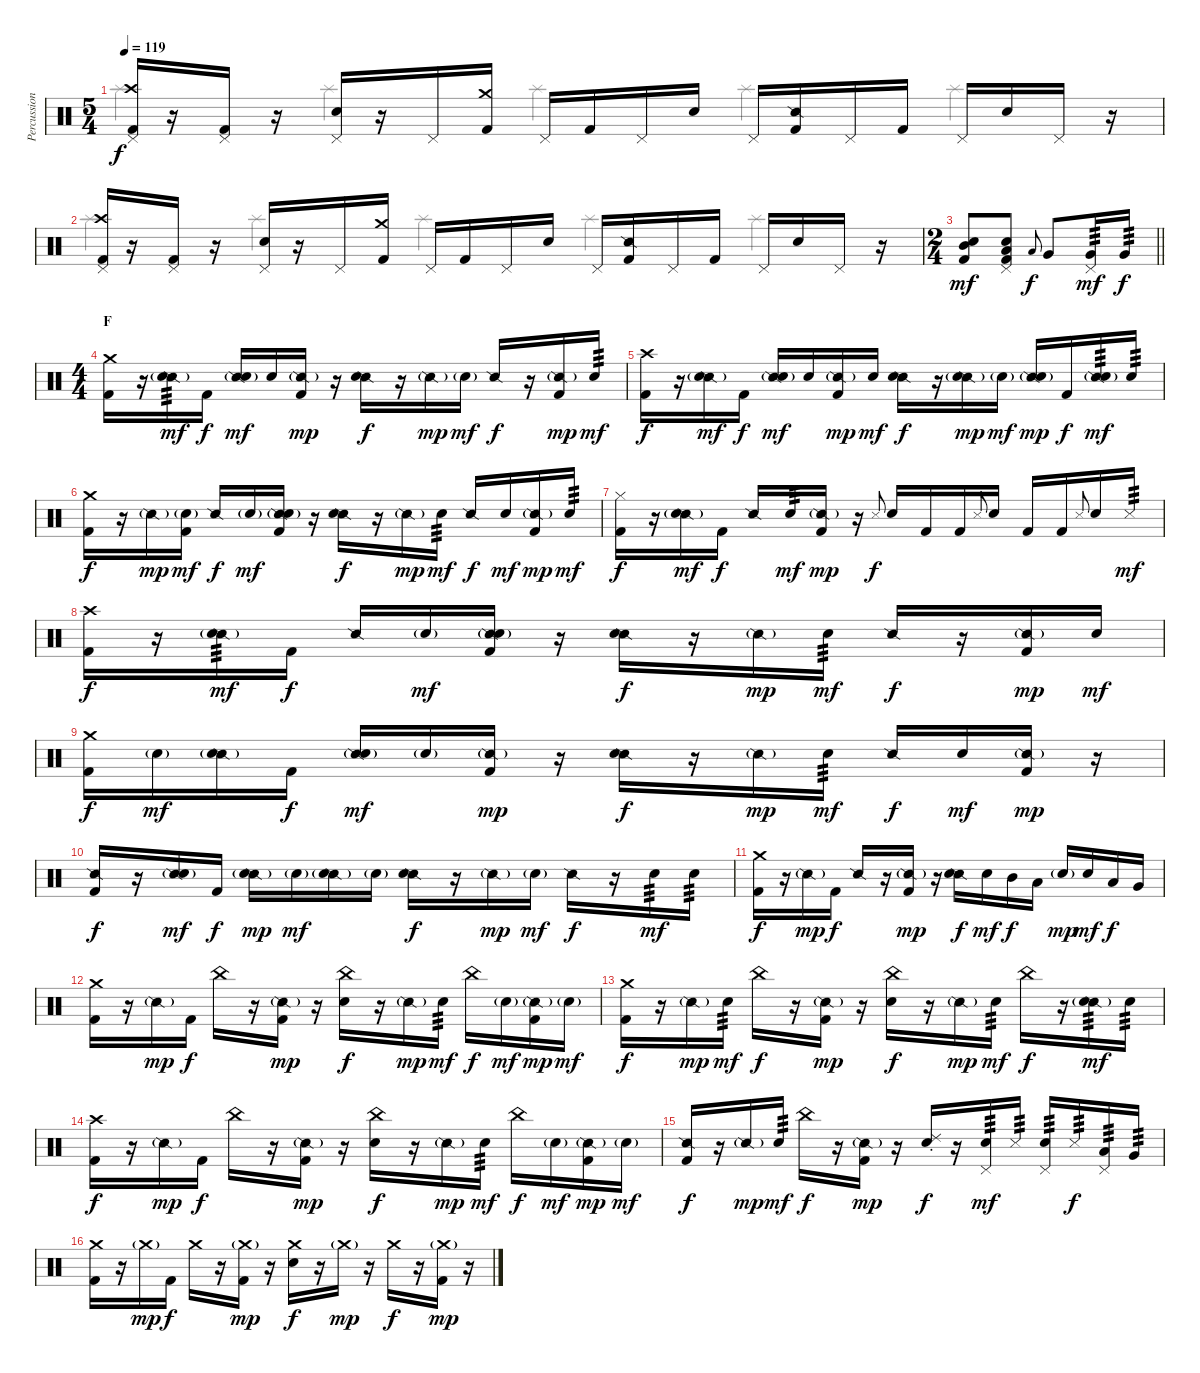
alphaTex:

\track ("Percussion" "Percussion") {instrument percussion}
\staff {score}
\articulation defaults
\voice
\ts (5 4)
\tempo 119
\clef neutral
\ks c
("Crash high (hit)" "Pedal Hi-Hat (hit)" "Kick (hit) 2").16{dy f} r.16 ("Pedal Hi-Hat (hit)" "Kick (hit) 2").16 r.16 ("Pedal Hi-Hat (hit)" "Snare (hit) 2").16 r.16 "Pedal Hi-Hat (hit)".16 ("Crash medium (hit)" "Kick (hit) 2").16 "Pedal Hi-Hat (hit)".16 "Kick (hit) 2".16 "Pedal Hi-Hat (hit)".16 "Snare (hit) 2".16 "Pedal Hi-Hat (hit)".16 ("Snare (side stick) 2" "Kick (hit) 2").16 "Pedal Hi-Hat (hit)".16 "Kick (hit) 2".16 "Pedal Hi-Hat (hit)".16 "Snare (hit) 2".16 "Pedal Hi-Hat (hit)".16 r.16 |
("Crash high (hit)" "Pedal Hi-Hat (hit)" "Kick (hit) 2").16 r.16 ("Pedal Hi-Hat (hit)" "Kick (hit) 2").16 r.16 ("Pedal Hi-Hat (hit)" "Snare (hit) 2").16 r.16 "Pedal Hi-Hat (hit)".16 ("Crash medium (hit)" "Kick (hit) 2").16 "Pedal Hi-Hat (hit)".16 "Kick (hit) 2".16 "Pedal Hi-Hat (hit)".16 "Snare (hit) 2".16 "Pedal Hi-Hat (hit)".16 ("Snare (side stick) 2" "Kick (hit) 2").16 "Pedal Hi-Hat (hit)".16 "Kick (hit) 2".16 "Pedal Hi-Hat (hit)".16 "Snare (hit) 2".16 "Pedal Hi-Hat (hit)".16 r.16 |
\ts (2 4)
\barLineRight lightlight
("Mid Tom (hit)" "Snare (hit) 2" "Kick (hit) 2").8{dy mf} ("Pedal Hi-Hat (hit)" "Snare (hit) 2" "Low Floor Tom (hit)" "Kick (hit) 2").8 "Low Tom (hit)".8{gr onbeat dy f} "Very Low Tom (hit)".8 ("Pedal Hi-Hat (hit)" "Very Low Tom (hit)").16{tp 3 dy mf} "Very Low Tom (hit)".16{tp 3 dy f} |
\ts (4 4)
\section ("" "F")
("Crash medium (hit)" "Kick (hit) 2").16 r.16 ("Snare (side stick) 2"{g} "Snare (hit) 2").16{tp 3 dy mf} "Kick (hit) 2".16{dy f} ("Snare (side stick) 2" "Snare (hit) 2"{g}).16{dy mf} "Snare (hit) 2".16 ("Snare (side stick) 2"{g} "Kick (hit) 2").16{dy mp} r.16 ("Snare (side stick) 2" "Snare (hit) 2").16{dy f} r.16 "Snare (side stick) 2"{g}.16{dy mp} "Snare (hit) 2"{g}.16{dy mf} "Snare (side stick) 2".16{dy f} r.16 ("Snare (side stick) 2"{g} "Kick (hit) 2").16{dy mp} "Snare (hit) 2".16{tp 3 dy mf} |
("Crash high (hit)" "Kick (hit) 2").16{dy f} r.16 ("Snare (side stick) 2"{g} "Snare (hit) 2"{g}).16{dy mf} "Kick (hit) 2".16{dy f} ("Snare (side stick) 2" "Snare (hit) 2"{g}).16{dy mf} "Snare (hit) 2".16 ("Snare (side stick) 2"{g} "Kick (hit) 2").16{dy mp} "Snare (hit) 2".16{dy mf} ("Snare (side stick) 2" "Snare (hit) 2").16{dy f} r.16 ("Snare (side stick) 2"{g} "Snare (hit) 2"{g}).16{dy mp} "Snare (hit) 2"{g}.16{dy mf} ("Snare (side stick) 2" "Snare (hit) 2"{g}).16{dy mp} "Kick (hit) 2".16{dy f} ("Snare (side stick) 2"{g} "Snare (hit) 2").16{tp 3 dy mf} "Snare (hit) 2".16{tp 3} |
("Crash medium (hit)" "Kick (hit) 2").16{dy f} r.16 "Snare (side stick) 2"{g}.16{dy mp} ("Snare (hit) 2"{g} "Kick (hit) 2").16{dy mf} "Snare (side stick) 2".16{dy f} "Snare (hit) 2"{g}.16{dy mf} ("Snare (side stick) 2"{g} "Snare (hit) 2"{g} "Kick (hit) 2").16 r.16 ("Snare (side stick) 2" "Snare (hit) 2").16{dy f} r.16 "Snare (side stick) 2"{g}.16{dy mp} "Snare (hit) 2".16{tp 3 dy mf} "Snare (side stick) 2".16{dy f} "Snare (hit) 2".16{dy mf} ("Snare (side stick) 2"{g} "Kick (hit) 2").16{dy mp} "Snare (hit) 2".16{tp 3 dy mf} |
("Hi-Hat (closed)" "Kick (hit) 2").16{dy f} r.16 ("Snare (side stick) 2"{g} "Snare (hit) 2").16{dy mf} "Kick (hit) 2".16{dy f} "Snare (side stick) 2".16 "Snare (hit) 2".16{tp 3 dy mf} ("Snare (side stick) 2"{g} "Kick (hit) 2").16{dy mp} r.16 "Metronome (hit)".8{gr onbeat dy f} "Snare (hit) 2".16 "Kick (hit) 2".16 "Kick (hit) 2".16 "Metronome (hit)".8{gr onbeat} "Snare (hit) 2".16 "Kick (hit) 2".16 "Kick (hit) 2".16 "Metronome (hit)".8{gr onbeat} "Snare (hit) 2".16 "Metronome (hit)".16{tp 3 dy mf} |
("Crash high (hit)" "Kick (hit) 2").16{dy f} r.16 ("Snare (side stick) 2"{g} "Snare (hit) 2").16{tp 3 dy mf} "Kick (hit) 2".16{dy f} "Snare (side stick) 2".16 "Snare (hit) 2"{g}.16{dy mf} ("Snare (side stick) 2"{g} "Snare (hit) 2"{g} "Kick (hit) 2").16 r.16 ("Snare (side stick) 2" "Snare (hit) 2").16{dy f} r.16 "Snare (side stick) 2"{g}.16{dy mp} "Snare (hit) 2".16{tp 3 dy mf} "Snare (side stick) 2".16{dy f} r.16 ("Snare (side stick) 2"{g} "Kick (hit) 2").16{dy mp} "Snare (hit) 2".16{dy mf} |
("Crash medium (hit)" "Kick (hit) 2").16{dy f} "Snare (hit) 2"{g}.16{dy mf} ("Snare (side stick) 2"{g} "Snare (hit) 2"{g}).16 "Kick (hit) 2".16{dy f} ("Snare (side stick) 2" "Snare (hit) 2"{g}).16{dy mf} "Snare (hit) 2"{g}.16 ("Snare (side stick) 2"{g} "Kick (hit) 2").16{dy mp} r.16 ("Snare (side stick) 2" "Snare (hit) 2").16{dy f} r.16 "Snare (side stick) 2"{g}.16{dy mp} "Snare (hit) 2".16{tp 3 dy mf} "Snare (side stick) 2".16{dy f} "Snare (hit) 2".16{dy mf} ("Snare (side stick) 2"{g} "Kick (hit) 2").16{dy mp} r.16 |
("Snare (side stick) 2" "Kick (hit) 2").16{dy f} r.16 ("Snare (side stick) 2"{g} "Snare (hit) 2"{g}).16{dy mf} "Kick (hit) 2".16{dy f} ("Snare (side stick) 2" "Snare (hit) 2"{g}).16{dy mp} "Snare (hit) 2"{g}.16{dy mf} ("Snare (side stick) 2"{g} "Snare (hit) 2").16 "Snare (hit) 2"{g}.16 ("Snare (side stick) 2" "Snare (hit) 2").16{dy f} r.16 "Snare (side stick) 2"{g}.16{dy mp} "Snare (hit) 2"{g}.16{dy mf} "Snare (side stick) 2".16{dy f} r.16 "Snare (hit) 2".16{tp 3 dy mf} "Snare (hit) 2".16{tp 3} |
("Crash medium (hit)" "Kick (hit) 2").16{dy f} r.16 "Snare (side stick) 2"{g}.16{dy mp} "Kick (hit) 2".16{dy f} "Snare (side stick) 2".16 r.16 ("Snare (side stick) 2"{g} "Kick (hit) 2").16{dy mp} r.16 ("Snare (side stick) 2" "Snare (hit) 2").16{dy f} "Snare (hit) 2".16{dy mf} "Mid Tom (hit)".16{dy f} "Low Tom (hit)".16 "Snare (hit) 2"{g}.16{dy mp} "Snare (hit) 2".16{dy mf} "Low Tom (hit)".16{dy f} "Very Low Tom (hit)".16 |
("Crash medium (hit)" "Kick (hit) 2").16 r.16 "Snare (side stick) 2"{g}.16{dy mp} "Kick (hit) 2".16{dy f} "China (hit)".16 r.16 ("Snare (side stick) 2"{g} "Kick (hit) 2").16{dy mp} r.16 ("China (hit)" "Snare (hit) 2").16{dy f} r.16 "Snare (side stick) 2"{g}.16{dy mp} "Snare (hit) 2".16{tp 3 dy mf} "China (hit)".16{dy f} "Snare (hit) 2"{g}.16{dy mf} ("Snare (side stick) 2"{g} "Kick (hit) 2").16{dy mp} "Snare (hit) 2"{g}.16{dy mf} |
("Crash medium (hit)" "Kick (hit) 2").16{dy f} r.16 "Snare (side stick) 2"{g}.16{dy mp} "Snare (hit) 2".16{tp 3 dy mf} "China (hit)".16{dy f} r.16 ("Snare (side stick) 2"{g} "Kick (hit) 2").16{dy mp} r.16 ("China (hit)" "Snare (hit) 2").16{dy f} r.16 "Snare (side stick) 2"{g}.16{dy mp} "Snare (hit) 2".16{tp 3 dy mf} "China (hit)".16{dy f} r.16 ("Snare (side stick) 2"{g} "Snare (hit) 2").16{tp 3 dy mf} "Snare (hit) 2".16{tp 3} |
("Crash high (hit)" "Kick (hit) 2").16{dy f} r.16 "Snare (side stick) 2"{g}.16{dy mp} "Kick (hit) 2".16{dy f} "China (hit)".16 r.16 ("Snare (side stick) 2"{g} "Kick (hit) 2").16{dy mp} r.16 ("China (hit)" "Snare (hit) 2").16{dy f} r.16 "Snare (side stick) 2"{g}.16{dy mp} "Snare (hit) 2".16{tp 3 dy mf} "China (hit)".16{dy f} "Snare (hit) 2"{g}.16{dy mf} ("Snare (side stick) 2"{g} "Kick (hit) 2").16{dy mp} "Snare (hit) 2"{g}.16{dy mf} |
("Snare (side stick) 2" "Kick (hit) 2").16{dy f} r.16 "Snare (side stick) 2"{g}.16{dy mp} "Snare (hit) 2".16{tp 3 dy mf} "China (hit)".16{dy f} r.16 ("Snare (side stick) 2"{g} "Kick (hit) 2").16{dy mp} r.16 ("Ride (choke) 2" "Snare (hit) 2").16{dy f} r.16 ("Pedal Hi-Hat (hit)" "Snare (hit) 2").16{tp 3 dy mf} "Metronome (hit)".16{tp 3} ("Pedal Hi-Hat (hit)" "Snare (hit) 2").16{tp 3} "Metronome (hit)".16{tp 3 dy f} ("Pedal Hi-Hat (hit)" "Low Tom (hit)").16{tp 3} "Very Low Tom (hit)".16{tp 3} |
("Crash medium (hit)" "Kick (hit) 2").16 r.16 "Crash medium (hit)"{g}.16{dy mp} "Kick (hit) 2".16{dy f} "Crash medium (hit)".16 r.16 ("Crash medium (hit)"{g} "Kick (hit) 2").16{dy mp} r.16 ("Crash medium (hit)" "Snare (hit) 2").16{dy f} r.16 "Crash medium (hit)"{g}.16{dy mp} r.16 "Crash medium (hit)".16{dy f} r.16 ("Crash medium (hit)"{g} "Kick (hit) 2").16{dy mp} r.16
\voice
\clef neutral
\ottava regular
\simile none
\ks c "Splash (hit)".4{dy f} "Splash (hit)".4 "Splash (hit)".4 "Splash (hit)".4 "Splash (hit)".4
|
"Splash (hit)".4 "Splash (hit)".4 "Splash (hit)".4 "Splash (hit)".4 "Splash (hit)".4 |
\barLineRight lightlight
|
|
|
|
|
|
|
|
|
|
|
|
|
